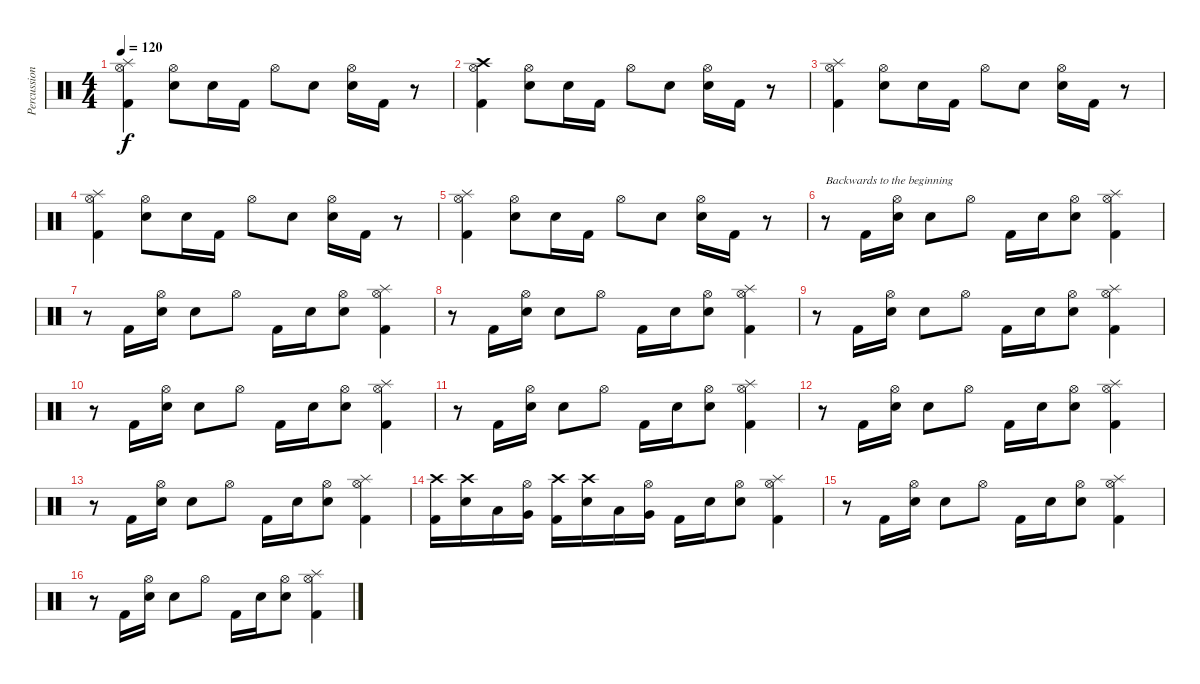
\track ("Percussion" "Percussion") {instrument percussion}
\staff {score}
\articulation defaults
\ts (4 4)
\tempo 120
\clef neutral
\ks c
("Splash (hit)" "Hi-Hat (open)" "Kick (hit) 2").4{dy f} ("Hi-Hat (open)" "Snare (hit) 2").8 "Snare (hit) 2".16 "Kick (hit) 2".16 "Hi-Hat (open)".8 "Snare (hit) 2".8 ("Hi-Hat (open)" "Snare (hit) 2").16 "Kick (hit) 2".16 r.8 |
("Crash high (hit)" "Hi-Hat (open)" "Kick (hit) 2").4 ("Hi-Hat (open)" "Snare (hit) 2").8 "Snare (hit) 2".16 "Kick (hit) 2".16 "Hi-Hat (open)".8 "Snare (hit) 2".8 ("Hi-Hat (open)" "Snare (hit) 2").16 "Kick (hit) 2".16 r.8 |
("Splash (hit)" "Hi-Hat (open)" "Kick (hit) 2").4 ("Hi-Hat (open)" "Snare (hit) 2").8 "Snare (hit) 2".16 "Kick (hit) 2".16 "Hi-Hat (open)".8 "Snare (hit) 2".8 ("Hi-Hat (open)" "Snare (hit) 2").16 "Kick (hit) 2".16 r.8 |
("Splash (hit)" "Hi-Hat (open)" "Kick (hit) 2").4 ("Hi-Hat (open)" "Snare (hit) 2").8 "Snare (hit) 2".16 "Kick (hit) 2".16 "Hi-Hat (open)".8 "Snare (hit) 2".8 ("Hi-Hat (open)" "Snare (hit) 2").16 "Kick (hit) 2".16 r.8 |
("Splash (hit)" "Hi-Hat (open)" "Kick (hit) 2").4 ("Hi-Hat (open)" "Snare (hit) 2").8 "Snare (hit) 2".16 "Kick (hit) 2".16 "Hi-Hat (open)".8 "Snare (hit) 2".8 ("Hi-Hat (open)" "Snare (hit) 2").16 "Kick (hit) 2".16 r.8 |
r.8{txt "Backwards to the beginning"} "Kick (hit) 2".16 ("Hi-Hat (open)" "Snare (hit) 2").16 "Snare (hit) 2".8 "Hi-Hat (open)".8 "Kick (hit) 2".16 "Snare (hit) 2".16 ("Hi-Hat (open)" "Snare (hit) 2").8 ("Splash (hit)" "Hi-Hat (open)" "Kick (hit) 2").4 |
r.8 "Kick (hit) 2".16 ("Hi-Hat (open)" "Snare (hit) 2").16 "Snare (hit) 2".8 "Hi-Hat (open)".8 "Kick (hit) 2".16 "Snare (hit) 2".16 ("Hi-Hat (open)" "Snare (hit) 2").8 ("Splash (hit)" "Hi-Hat (open)" "Kick (hit) 2").4 |
r.8 "Kick (hit) 2".16 ("Hi-Hat (open)" "Snare (hit) 2").16 "Snare (hit) 2".8 "Hi-Hat (open)".8 "Kick (hit) 2".16 "Snare (hit) 2".16 ("Hi-Hat (open)" "Snare (hit) 2").8 ("Splash (hit)" "Hi-Hat (open)" "Kick (hit) 2").4 |
r.8 "Kick (hit) 2".16 ("Hi-Hat (open)" "Snare (hit) 2").16 "Snare (hit) 2".8 "Hi-Hat (open)".8 "Kick (hit) 2".16 "Snare (hit) 2".16 ("Hi-Hat (open)" "Snare (hit) 2").8 ("Splash (hit)" "Hi-Hat (open)" "Kick (hit) 2").4 |
r.8 "Kick (hit) 2".16 ("Hi-Hat (open)" "Snare (hit) 2").16 "Snare (hit) 2".8 "Hi-Hat (open)".8 "Kick (hit) 2".16 "Snare (hit) 2".16 ("Hi-Hat (open)" "Snare (hit) 2").8 ("Splash (hit)" "Hi-Hat (open)" "Kick (hit) 2").4 |
r.8 "Kick (hit) 2".16 ("Hi-Hat (open)" "Snare (hit) 2").16 "Snare (hit) 2".8 "Hi-Hat (open)".8 "Kick (hit) 2".16 "Snare (hit) 2".16 ("Hi-Hat (open)" "Snare (hit) 2").8 ("Splash (hit)" "Hi-Hat (open)" "Kick (hit) 2").4 |
r.8 "Kick (hit) 2".16 ("Hi-Hat (open)" "Snare (hit) 2").16 "Snare (hit) 2".8 "Hi-Hat (open)".8 "Kick (hit) 2".16 "Snare (hit) 2".16 ("Hi-Hat (open)" "Snare (hit) 2").8 ("Splash (hit)" "Hi-Hat (open)" "Kick (hit) 2").4 |
r.8 "Kick (hit) 2".16 ("Hi-Hat (open)" "Snare (hit) 2").16 "Snare (hit) 2".8 "Hi-Hat (open)".8 "Kick (hit) 2".16 "Snare (hit) 2".16 ("Hi-Hat (open)" "Snare (hit) 2").8 ("Splash (hit)" "Hi-Hat (open)" "Kick (hit) 2").4 |
("Crash high (hit)" "Kick (hit) 2").16 ("Crash high (hit)" "Snare (hit) 2").16 "Low Floor Tom (hit)".16 ("Hi-Hat (open)" "Very Low Tom (hit)").16 ("Crash high (hit)" "Kick (hit) 2").16 ("Crash high (hit)" "Snare (hit) 2").16 "Low Floor Tom (hit)".16 ("Hi-Hat (open)" "Very Low Tom (hit)").16 "Kick (hit) 2".16 "Snare (hit) 2".16 ("Hi-Hat (open)" "Snare (hit) 2").8 ("Splash (hit)" "Hi-Hat (open)" "Kick (hit) 2").4 |
r.8 "Kick (hit) 2".16 ("Hi-Hat (open)" "Snare (hit) 2").16 "Snare (hit) 2".8 "Hi-Hat (open)".8 "Kick (hit) 2".16 "Snare (hit) 2".16 ("Hi-Hat (open)" "Snare (hit) 2").8 ("Splash (hit)" "Hi-Hat (open)" "Kick (hit) 2").4 |
r.8 "Kick (hit) 2".16 ("Hi-Hat (open)" "Snare (hit) 2").16 "Snare (hit) 2".8 "Hi-Hat (open)".8 "Kick (hit) 2".16 "Snare (hit) 2".16 ("Hi-Hat (open)" "Snare (hit) 2").8 ("Splash (hit)" "Hi-Hat (open)" "Kick (hit) 2").4
